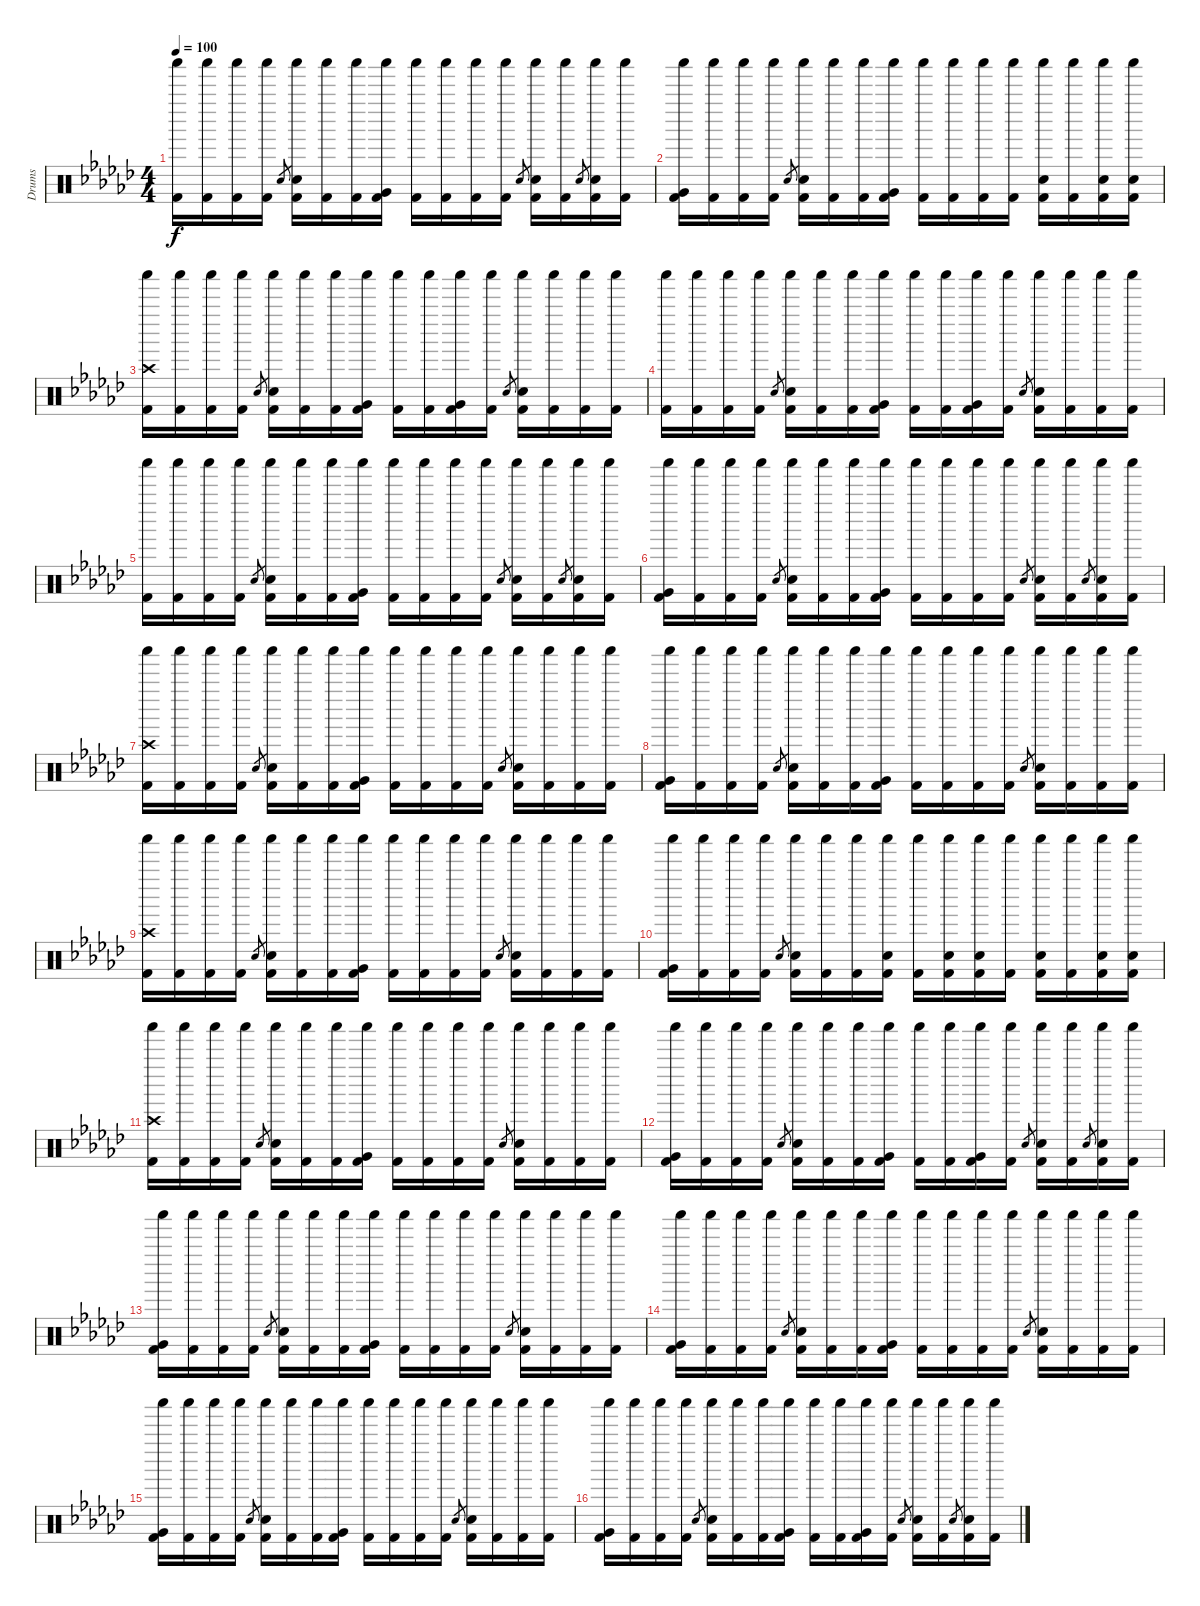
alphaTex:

\track ("Drums" "Drums") {instrument percussion}
\staff {score}
\articulation defaults
\ts (4 4)
\tempo 100
\clef neutral
\ks gb
("Shaker (hit)" "Kick (hit) 2").16{dy f} ("Shaker (hit)" "Kick (hit) 2").16 ("Shaker (hit)" "Kick (hit) 2").16 ("Shaker (hit)" "Kick (hit) 2").16 "Electric Snare (hit)".8{gr} ("Shaker (hit)" "Electric Snare (hit)" "Kick (hit) 2").16 ("Shaker (hit)" "Kick (hit) 2").16 ("Shaker (hit)" "Kick (hit) 2").16 ("Shaker (hit)" "Very Low Tom (hit)" "Kick (hit) 2").16 ("Shaker (hit)" "Kick (hit) 2").16 ("Shaker (hit)" "Kick (hit) 2").16 ("Shaker (hit)" "Kick (hit) 2").16 ("Shaker (hit)" "Kick (hit) 2").16 "Electric Snare (hit)".8{gr} ("Shaker (hit)" "Electric Snare (hit)" "Kick (hit) 2").16 ("Shaker (hit)" "Kick (hit) 2").16 "Electric Snare (hit)".8{gr} ("Shaker (hit)" "Electric Snare (hit)" "Kick (hit) 2").16 ("Shaker (hit)" "Kick (hit) 2").16 |
("Shaker (hit)" "Very Low Tom (hit)" "Kick (hit) 2").16 ("Shaker (hit)" "Kick (hit) 2").16 ("Shaker (hit)" "Kick (hit) 2").16 ("Shaker (hit)" "Kick (hit) 2").16 "Electric Snare (hit)".8{gr} ("Shaker (hit)" "Electric Snare (hit)" "Kick (hit) 2").16 ("Shaker (hit)" "Kick (hit) 2").16 ("Shaker (hit)" "Kick (hit) 2").16 ("Shaker (hit)" "Very Low Tom (hit)" "Kick (hit) 2").16 ("Shaker (hit)" "Kick (hit) 2").16 ("Shaker (hit)" "Kick (hit) 2").16 ("Shaker (hit)" "Kick (hit) 2").16 ("Shaker (hit)" "Kick (hit) 2").16 ("Shaker (hit)" "Electric Snare (hit)" "Kick (hit) 2").16 ("Shaker (hit)" "Kick (hit) 2").16 ("Shaker (hit)" "Electric Snare (hit)" "Kick (hit) 2").16 ("Shaker (hit)" "Electric Snare (hit)" "Kick (hit) 2").16 |
("Crash high (hit)" "Shaker (hit)" "Kick (hit) 2").16 ("Shaker (hit)" "Kick (hit) 2").16 ("Shaker (hit)" "Kick (hit) 2").16 ("Shaker (hit)" "Kick (hit) 2").16 "Electric Snare (hit)".8{gr} ("Shaker (hit)" "Electric Snare (hit)" "Kick (hit) 2").16 ("Shaker (hit)" "Kick (hit) 2").16 ("Shaker (hit)" "Kick (hit) 2").16 ("Shaker (hit)" "Very Low Tom (hit)" "Kick (hit) 2").16 ("Shaker (hit)" "Kick (hit) 2").16 ("Shaker (hit)" "Kick (hit) 2").16 ("Shaker (hit)" "Very Low Tom (hit)" "Kick (hit) 2").16 ("Shaker (hit)" "Kick (hit) 2").16 "Electric Snare (hit)".8{gr} ("Shaker (hit)" "Electric Snare (hit)" "Kick (hit) 2").16 ("Shaker (hit)" "Kick (hit) 2").16 ("Shaker (hit)" "Kick (hit) 2").16 ("Shaker (hit)" "Kick (hit) 2").16 |
("Shaker (hit)" "Kick (hit) 2").16 ("Shaker (hit)" "Kick (hit) 2").16 ("Shaker (hit)" "Kick (hit) 2").16 ("Shaker (hit)" "Kick (hit) 2").16 "Electric Snare (hit)".8{gr} ("Shaker (hit)" "Electric Snare (hit)" "Kick (hit) 2").16 ("Shaker (hit)" "Kick (hit) 2").16 ("Shaker (hit)" "Kick (hit) 2").16 ("Shaker (hit)" "Very Low Tom (hit)" "Kick (hit) 2").16 ("Shaker (hit)" "Kick (hit) 2").16 ("Shaker (hit)" "Kick (hit) 2").16 ("Shaker (hit)" "Very Low Tom (hit)" "Kick (hit) 2").16 ("Shaker (hit)" "Kick (hit) 2").16 "Electric Snare (hit)".8{gr} ("Shaker (hit)" "Electric Snare (hit)" "Kick (hit) 2").16 ("Shaker (hit)" "Kick (hit) 2").16 ("Shaker (hit)" "Kick (hit) 2").16 ("Shaker (hit)" "Kick (hit) 2").16 |
("Shaker (hit)" "Kick (hit) 2").16 ("Shaker (hit)" "Kick (hit) 2").16 ("Shaker (hit)" "Kick (hit) 2").16 ("Shaker (hit)" "Kick (hit) 2").16 "Electric Snare (hit)".8{gr} ("Shaker (hit)" "Electric Snare (hit)" "Kick (hit) 2").16 ("Shaker (hit)" "Kick (hit) 2").16 ("Shaker (hit)" "Kick (hit) 2").16 ("Shaker (hit)" "Very Low Tom (hit)" "Kick (hit) 2").16 ("Shaker (hit)" "Kick (hit) 2").16 ("Shaker (hit)" "Kick (hit) 2").16 ("Shaker (hit)" "Kick (hit) 2").16 ("Shaker (hit)" "Kick (hit) 2").16 "Electric Snare (hit)".8{gr} ("Shaker (hit)" "Electric Snare (hit)" "Kick (hit) 2").16 ("Shaker (hit)" "Kick (hit) 2").16 "Electric Snare (hit)".8{gr} ("Shaker (hit)" "Electric Snare (hit)" "Kick (hit) 2").16 ("Shaker (hit)" "Kick (hit) 2").16 |
("Shaker (hit)" "Very Low Tom (hit)" "Kick (hit) 2").16 ("Shaker (hit)" "Kick (hit) 2").16 ("Shaker (hit)" "Kick (hit) 2").16 ("Shaker (hit)" "Kick (hit) 2").16 "Electric Snare (hit)".8{gr} ("Shaker (hit)" "Electric Snare (hit)" "Kick (hit) 2").16 ("Shaker (hit)" "Kick (hit) 2").16 ("Shaker (hit)" "Kick (hit) 2").16 ("Shaker (hit)" "Very Low Tom (hit)" "Kick (hit) 2").16 ("Shaker (hit)" "Kick (hit) 2").16 ("Shaker (hit)" "Kick (hit) 2").16 ("Shaker (hit)" "Kick (hit) 2").16 ("Shaker (hit)" "Kick (hit) 2").16 "Electric Snare (hit)".8{gr} ("Shaker (hit)" "Electric Snare (hit)" "Kick (hit) 2").16 ("Shaker (hit)" "Kick (hit) 2").16 "Electric Snare (hit)".8{gr} ("Shaker (hit)" "Electric Snare (hit)" "Kick (hit) 2").16 ("Shaker (hit)" "Kick (hit) 2").16 |
("Crash high (hit)" "Shaker (hit)" "Kick (hit) 2").16 ("Shaker (hit)" "Kick (hit) 2").16 ("Shaker (hit)" "Kick (hit) 2").16 ("Shaker (hit)" "Kick (hit) 2").16 "Electric Snare (hit)".8{gr} ("Shaker (hit)" "Electric Snare (hit)" "Kick (hit) 2").16 ("Shaker (hit)" "Kick (hit) 2").16 ("Shaker (hit)" "Kick (hit) 2").16 ("Shaker (hit)" "Very Low Tom (hit)" "Kick (hit) 2").16 ("Shaker (hit)" "Kick (hit) 2").16 ("Shaker (hit)" "Kick (hit) 2").16 ("Shaker (hit)" "Kick (hit) 2").16 ("Shaker (hit)" "Kick (hit) 2").16 "Electric Snare (hit)".8{gr} ("Shaker (hit)" "Electric Snare (hit)" "Kick (hit) 2").16 ("Shaker (hit)" "Kick (hit) 2").16 ("Shaker (hit)" "Kick (hit) 2").16 ("Shaker (hit)" "Kick (hit) 2").16 |
("Shaker (hit)" "Very Low Tom (hit)" "Kick (hit) 2").16 ("Shaker (hit)" "Kick (hit) 2").16 ("Shaker (hit)" "Kick (hit) 2").16 ("Shaker (hit)" "Kick (hit) 2").16 "Electric Snare (hit)".8{gr} ("Shaker (hit)" "Electric Snare (hit)" "Kick (hit) 2").16 ("Shaker (hit)" "Kick (hit) 2").16 ("Shaker (hit)" "Kick (hit) 2").16 ("Shaker (hit)" "Very Low Tom (hit)" "Kick (hit) 2").16 ("Shaker (hit)" "Kick (hit) 2").16 ("Shaker (hit)" "Kick (hit) 2").16 ("Shaker (hit)" "Kick (hit) 2").16 ("Shaker (hit)" "Kick (hit) 2").16 "Electric Snare (hit)".8{gr} ("Shaker (hit)" "Electric Snare (hit)" "Kick (hit) 2").16 ("Shaker (hit)" "Kick (hit) 2").16 ("Shaker (hit)" "Kick (hit) 2").16 ("Shaker (hit)" "Kick (hit) 2").16 |
("Crash high (hit)" "Shaker (hit)" "Kick (hit) 2").16 ("Shaker (hit)" "Kick (hit) 2").16 ("Shaker (hit)" "Kick (hit) 2").16 ("Shaker (hit)" "Kick (hit) 2").16 "Electric Snare (hit)".8{gr} ("Shaker (hit)" "Electric Snare (hit)" "Kick (hit) 2").16 ("Shaker (hit)" "Kick (hit) 2").16 ("Shaker (hit)" "Kick (hit) 2").16 ("Shaker (hit)" "Very Low Tom (hit)" "Kick (hit) 2").16 ("Shaker (hit)" "Kick (hit) 2").16 ("Shaker (hit)" "Kick (hit) 2").16 ("Shaker (hit)" "Kick (hit) 2").16 ("Shaker (hit)" "Kick (hit) 2").16 "Electric Snare (hit)".8{gr} ("Shaker (hit)" "Electric Snare (hit)" "Kick (hit) 2").16 ("Shaker (hit)" "Kick (hit) 2").16 ("Shaker (hit)" "Kick (hit) 2").16 ("Shaker (hit)" "Kick (hit) 2").16 |
("Shaker (hit)" "Very Low Tom (hit)" "Kick (hit) 2").16 ("Shaker (hit)" "Kick (hit) 2").16 ("Shaker (hit)" "Kick (hit) 2").16 ("Shaker (hit)" "Kick (hit) 2").16 "Electric Snare (hit)".8{gr} ("Shaker (hit)" "Electric Snare (hit)" "Kick (hit) 2").16 ("Shaker (hit)" "Kick (hit) 2").16 ("Shaker (hit)" "Kick (hit) 2").16 ("Shaker (hit)" "Electric Snare (hit)" "Kick (hit) 2").16 ("Shaker (hit)" "Kick (hit) 2").16 ("Shaker (hit)" "Electric Snare (hit)" "Kick (hit) 2").16 ("Shaker (hit)" "Electric Snare (hit)" "Kick (hit) 2").16 ("Shaker (hit)" "Kick (hit) 2").16 ("Shaker (hit)" "Electric Snare (hit)" "Kick (hit) 2").16 ("Shaker (hit)" "Kick (hit) 2").16 ("Shaker (hit)" "Electric Snare (hit)" "Kick (hit) 2").16 ("Shaker (hit)" "Electric Snare (hit)" "Kick (hit) 2").16 |
("Crash high (hit)" "Shaker (hit)" "Kick (hit) 2").16 ("Shaker (hit)" "Kick (hit) 2").16 ("Shaker (hit)" "Kick (hit) 2").16 ("Shaker (hit)" "Kick (hit) 2").16 "Electric Snare (hit)".8{gr} ("Shaker (hit)" "Electric Snare (hit)" "Kick (hit) 2").16 ("Shaker (hit)" "Kick (hit) 2").16 ("Shaker (hit)" "Kick (hit) 2").16 ("Shaker (hit)" "Very Low Tom (hit)" "Kick (hit) 2").16 ("Shaker (hit)" "Kick (hit) 2").16 ("Shaker (hit)" "Kick (hit) 2").16 ("Shaker (hit)" "Kick (hit) 2").16 ("Shaker (hit)" "Kick (hit) 2").16 "Electric Snare (hit)".8{gr} ("Shaker (hit)" "Electric Snare (hit)" "Kick (hit) 2").16 ("Shaker (hit)" "Kick (hit) 2").16 ("Shaker (hit)" "Kick (hit) 2").16 ("Shaker (hit)" "Kick (hit) 2").16 |
("Shaker (hit)" "Very Low Tom (hit)" "Kick (hit) 2").16 ("Shaker (hit)" "Kick (hit) 2").16 ("Shaker (hit)" "Kick (hit) 2").16 ("Shaker (hit)" "Kick (hit) 2").16 "Electric Snare (hit)".8{gr} ("Shaker (hit)" "Electric Snare (hit)" "Kick (hit) 2").16 ("Shaker (hit)" "Kick (hit) 2").16 ("Shaker (hit)" "Kick (hit) 2").16 ("Shaker (hit)" "Very Low Tom (hit)" "Kick (hit) 2").16 ("Shaker (hit)" "Kick (hit) 2").16 ("Shaker (hit)" "Kick (hit) 2").16 ("Shaker (hit)" "Very Low Tom (hit)" "Kick (hit) 2").16 ("Shaker (hit)" "Kick (hit) 2").16 "Electric Snare (hit)".8{gr} ("Shaker (hit)" "Electric Snare (hit)" "Kick (hit) 2").16 ("Shaker (hit)" "Kick (hit) 2").16 "Electric Snare (hit)".8{gr} ("Shaker (hit)" "Electric Snare (hit)" "Kick (hit) 2").16 ("Shaker (hit)" "Kick (hit) 2").16 |
("Shaker (hit)" "Very Low Tom (hit)" "Kick (hit) 2").16 ("Shaker (hit)" "Kick (hit) 2").16 ("Shaker (hit)" "Kick (hit) 2").16 ("Shaker (hit)" "Kick (hit) 2").16 "Electric Snare (hit)".8{gr} ("Shaker (hit)" "Electric Snare (hit)" "Kick (hit) 2").16 ("Shaker (hit)" "Kick (hit) 2").16 ("Shaker (hit)" "Kick (hit) 2").16 ("Shaker (hit)" "Very Low Tom (hit)" "Kick (hit) 2").16 ("Shaker (hit)" "Kick (hit) 2").16 ("Shaker (hit)" "Kick (hit) 2").16 ("Shaker (hit)" "Kick (hit) 2").16 ("Shaker (hit)" "Kick (hit) 2").16 "Electric Snare (hit)".8{gr} ("Shaker (hit)" "Electric Snare (hit)" "Kick (hit) 2").16 ("Shaker (hit)" "Kick (hit) 2").16 ("Shaker (hit)" "Kick (hit) 2").16 ("Shaker (hit)" "Kick (hit) 2").16 |
("Shaker (hit)" "Very Low Tom (hit)" "Kick (hit) 2").16 ("Shaker (hit)" "Kick (hit) 2").16 ("Shaker (hit)" "Kick (hit) 2").16 ("Shaker (hit)" "Kick (hit) 2").16 "Electric Snare (hit)".8{gr} ("Shaker (hit)" "Electric Snare (hit)" "Kick (hit) 2").16 ("Shaker (hit)" "Kick (hit) 2").16 ("Shaker (hit)" "Kick (hit) 2").16 ("Shaker (hit)" "Very Low Tom (hit)" "Kick (hit) 2").16 ("Shaker (hit)" "Kick (hit) 2").16 ("Shaker (hit)" "Kick (hit) 2").16 ("Shaker (hit)" "Kick (hit) 2").16 ("Shaker (hit)" "Kick (hit) 2").16 "Electric Snare (hit)".8{gr} ("Shaker (hit)" "Electric Snare (hit)" "Kick (hit) 2").16 ("Shaker (hit)" "Kick (hit) 2").16 ("Shaker (hit)" "Kick (hit) 2").16 ("Shaker (hit)" "Kick (hit) 2").16 |
("Shaker (hit)" "Very Low Tom (hit)" "Kick (hit) 2").16 ("Shaker (hit)" "Kick (hit) 2").16 ("Shaker (hit)" "Kick (hit) 2").16 ("Shaker (hit)" "Kick (hit) 2").16 "Electric Snare (hit)".8{gr} ("Shaker (hit)" "Electric Snare (hit)" "Kick (hit) 2").16 ("Shaker (hit)" "Kick (hit) 2").16 ("Shaker (hit)" "Kick (hit) 2").16 ("Shaker (hit)" "Very Low Tom (hit)" "Kick (hit) 2").16 ("Shaker (hit)" "Kick (hit) 2").16 ("Shaker (hit)" "Kick (hit) 2").16 ("Shaker (hit)" "Kick (hit) 2").16 ("Shaker (hit)" "Kick (hit) 2").16 "Electric Snare (hit)".8{gr} ("Shaker (hit)" "Electric Snare (hit)" "Kick (hit) 2").16 ("Shaker (hit)" "Kick (hit) 2").16 ("Shaker (hit)" "Kick (hit) 2").16 ("Shaker (hit)" "Kick (hit) 2").16 |
("Shaker (hit)" "Very Low Tom (hit)" "Kick (hit) 2").16 ("Shaker (hit)" "Kick (hit) 2").16 ("Shaker (hit)" "Kick (hit) 2").16 ("Shaker (hit)" "Kick (hit) 2").16 "Electric Snare (hit)".8{gr} ("Shaker (hit)" "Electric Snare (hit)" "Kick (hit) 2").16 ("Shaker (hit)" "Kick (hit) 2").16 ("Shaker (hit)" "Kick (hit) 2").16 ("Shaker (hit)" "Very Low Tom (hit)" "Kick (hit) 2").16 ("Shaker (hit)" "Kick (hit) 2").16 ("Shaker (hit)" "Kick (hit) 2").16 ("Shaker (hit)" "Very Low Tom (hit)" "Kick (hit) 2").16 ("Shaker (hit)" "Kick (hit) 2").16 "Electric Snare (hit)".8{gr} ("Shaker (hit)" "Electric Snare (hit)" "Kick (hit) 2").16 ("Shaker (hit)" "Kick (hit) 2").16 "Electric Snare (hit)".8{gr} ("Shaker (hit)" "Electric Snare (hit)" "Kick (hit) 2").16 ("Shaker (hit)" "Kick (hit) 2").16
